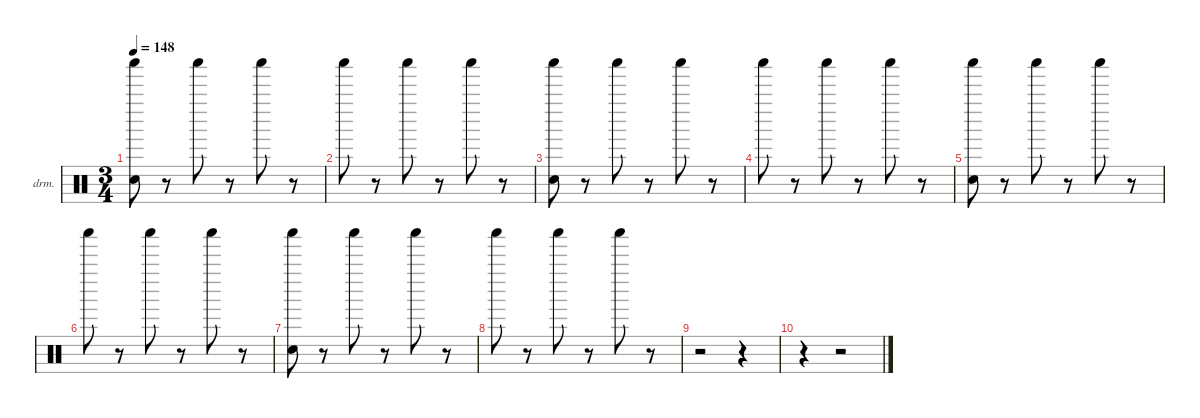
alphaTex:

\defaultSystemsLayout 4
\hideDynamics
\bracketExtendMode nobrackets
\firstSystemTrackNameOrientation horizontal
\otherSystemsTrackNameOrientation horizontal
\track ("Drums" "drm.") {instrument percussion}
\staff {score}
\articulation defaults
\ts (3 4)
\tempo 148
\clef neutral
\ks c
("Shaker (hit)" "Hand Clap (hit)").8{dy f beam Down} r.8{beam Down} "Shaker (hit)".8{beam Down} r.8{beam Down} "Shaker (hit)".8{beam Down} r.8{beam Down} |
"Shaker (hit)".8{beam Down} r.8{beam Down} "Shaker (hit)".8{beam Down} r.8{beam Down} "Shaker (hit)".8{beam Down} r.8{beam Down} |
("Shaker (hit)" "Hand Clap (hit)").8{beam Down} r.8{beam Down} "Shaker (hit)".8{beam Down} r.8{beam Down} "Shaker (hit)".8{beam Down} r.8{beam Down} |
"Shaker (hit)".8{beam Down} r.8{beam Down} "Shaker (hit)".8{beam Down} r.8{beam Down} "Shaker (hit)".8{beam Down} r.8{beam Down} |
("Shaker (hit)" "Hand Clap (hit)").8{beam Down} r.8{beam Down} "Shaker (hit)".8{beam Down} r.8{beam Down} "Shaker (hit)".8{beam Down} r.8{beam Down} |
"Shaker (hit)".8{beam Down} r.8{beam Down} "Shaker (hit)".8{beam Down} r.8{beam Down} "Shaker (hit)".8{beam Down} r.8{beam Down} |
("Shaker (hit)" "Hand Clap (hit)").8{beam Down} r.8{beam Down} "Shaker (hit)".8{beam Down} r.8{beam Down} "Shaker (hit)".8{beam Down} r.8{beam Down} |
"Shaker (hit)".8{beam Down} r.8{beam Down} "Shaker (hit)".8{beam Down} r.8{beam Down} "Shaker (hit)".8{beam Down} r.8{beam Down} |
r.2{beam Down} r.4{beam Down} |
r.4{beam Down} r.2{beam Down}
